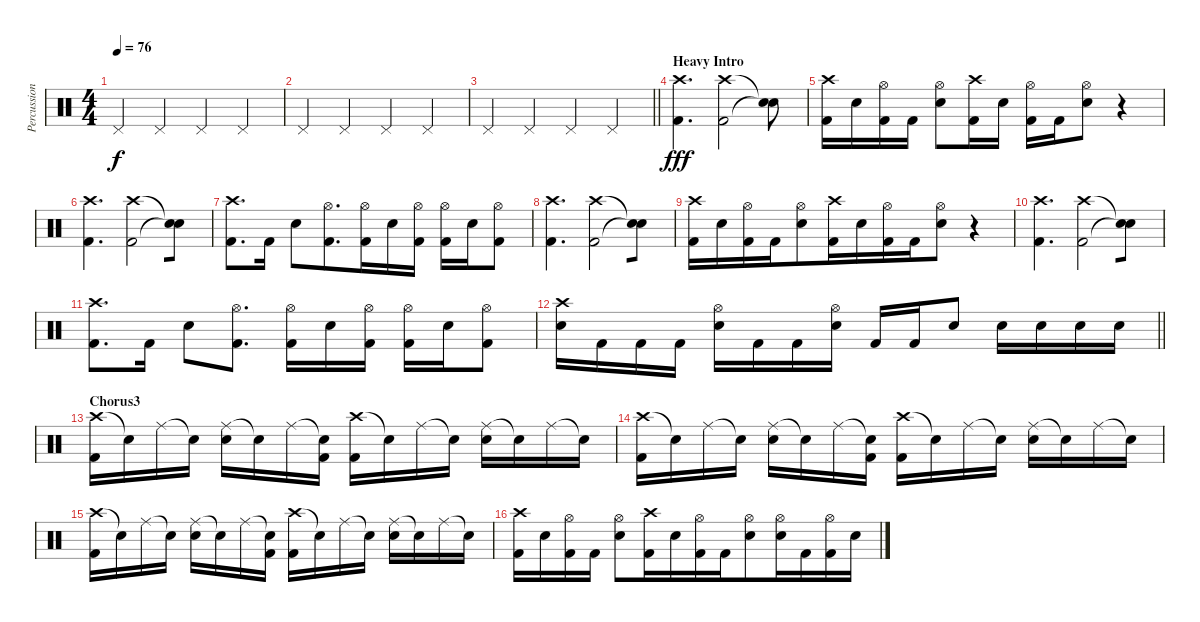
\track ("Percussion" "Percussion") {instrument percussion}
\staff {score}
\articulation defaults
\ts (4 4)
\tempo 76
\clef neutral
\ks c "Pedal Hi-Hat (hit)".4{dy f} "Pedal Hi-Hat (hit)".4 "Pedal Hi-Hat (hit)".4 "Pedal Hi-Hat (hit)".4
|
"Pedal Hi-Hat (hit)".4{beam merge} "Pedal Hi-Hat (hit)".4{beam merge} "Pedal Hi-Hat (hit)".4 "Pedal Hi-Hat (hit)".4 |
\barLineRight lightlight "Pedal Hi-Hat (hit)".4 "Pedal Hi-Hat (hit)".4 "Pedal Hi-Hat (hit)".4 "Pedal Hi-Hat (hit)".4
|
\section ("" "Heavy Intro")
("Crash high (hit)" "Kick (hit) 2").4{d dy fff} ("Crash high (hit)" "Kick (hit) 2").2 ("Snare (hit)"{t} "Snare (hit)"{t}).8 |
("Crash high (hit)" "Kick (hit) 2").16 "Snare (hit) 2".16 ("Hi-Hat (open)" "Kick (hit) 2").16 "Kick (hit) 2".16 ("Hi-Hat (open)" "Snare (hit) 2").8 ("Crash high (hit)" "Kick (hit) 2").16 "Snare (hit) 2".16 ("Hi-Hat (open)" "Kick (hit) 2").16 "Kick (hit) 2".16 ("Hi-Hat (open)" "Snare (hit) 2").8 r.4 |
("Crash high (hit)" "Kick (hit) 2").4{d beam merge} ("Crash high (hit)" "Kick (hit) 2").2{beam merge} ("Snare (hit)"{t} "Snare (hit)"{t}).8 |
("Crash high (hit)" "Kick (hit) 2").8{d beam merge} "Kick (hit) 2".16 "Snare (hit) 2".8{beam merge} ("Hi-Hat (open)" "Kick (hit) 2").8{d beam merge} ("Hi-Hat (open)" "Kick (hit) 2").16{beam merge} "Snare (hit) 2".16{beam merge} ("Hi-Hat (open)" "Kick (hit) 2").16 ("Hi-Hat (open)" "Kick (hit) 2").16 "Snare (hit) 2".16{beam merge} ("Hi-Hat (open)" "Kick (hit) 2").8 |
("Crash high (hit)" "Kick (hit) 2").4{d} ("Crash high (hit)" "Kick (hit) 2").2{beam merge} ("Snare (hit)"{t} "Snare (hit)"{t}).8 |
("Crash high (hit)" "Kick (hit) 2").16{beam merge} "Snare (hit) 2".16{beam merge} ("Hi-Hat (open)" "Kick (hit) 2").16{beam merge} "Kick (hit) 2".16{beam merge} ("Hi-Hat (open)" "Snare (hit) 2").8{beam merge} ("Crash high (hit)" "Kick (hit) 2").16{beam merge} "Snare (hit) 2".16{beam merge} ("Hi-Hat (open)" "Kick (hit) 2").16{beam merge} "Kick (hit) 2".16{beam merge} ("Hi-Hat (open)" "Snare (hit) 2").8{beam merge} r.4 |
("Crash high (hit)" "Kick (hit) 2").4{d} ("Crash high (hit)" "Kick (hit) 2").2{beam merge} ("Snare (hit)"{t} "Snare (hit)"{t}).8 |
("Crash high (hit)" "Kick (hit) 2").8{d} "Kick (hit) 2".16 "Snare (hit) 2".8{beam merge} ("Hi-Hat (open)" "Kick (hit) 2").8{d} ("Hi-Hat (open)" "Kick (hit) 2").16 "Snare (hit) 2".16 ("Hi-Hat (open)" "Kick (hit) 2").16 ("Hi-Hat (open)" "Kick (hit) 2").16 "Snare (hit) 2".16 ("Hi-Hat (open)" "Kick (hit) 2").8 |
\barLineRight lightlight
("Crash high (hit)" "Snare (hit) 2").16 "Kick (hit) 2".16{beam merge} "Kick (hit) 2".16 "Kick (hit) 2".16 ("Hi-Hat (open)" "Snare (hit) 2").16 "Kick (hit) 2".16 "Kick (hit) 2".16 ("Hi-Hat (open)" "Snare (hit) 2").16 "Kick (hit) 2".16 "Kick (hit) 2".16 "Snare (hit) 2".8 "Snare (hit) 2".16 "Snare (hit) 2".16 "Snare (hit) 2".16 "Snare (hit) 2".16 |
\section ("" "Chorus3")
("Crash high (hit)" "Kick (hit) 2").16 "Snare (hit)"{t}.16 "Ride (middle)".16{beam merge} "Snare (hit)"{t}.16 ("Ride (middle)" "Snare (hit) 2").16{beam merge} "Snare (hit)"{t}.16 "Ride (middle)".16 ("Snare (hit)"{t} "Kick (hit) 2").16 ("Crash high (hit)" "Kick (hit) 2").16 "Snare (hit)"{t}.16 "Ride (middle)".16 "Snare (hit)"{t}.16 ("Ride (middle)" "Snare (hit) 2").16 "Snare (hit)"{t}.16 "Ride (middle)".16 "Snare (hit)"{t}.16 |
("Crash high (hit)" "Kick (hit) 2").16 "Snare (hit)"{t}.16 "Ride (middle)".16 "Snare (hit)"{t}.16 ("Ride (middle)" "Snare (hit) 2").16 "Snare (hit)"{t}.16 "Ride (middle)".16 ("Snare (hit)"{t} "Kick (hit) 2").16 ("Crash high (hit)" "Kick (hit) 2").16 "Snare (hit)"{t}.16 "Ride (middle)".16 "Snare (hit)"{t}.16 ("Ride (middle)" "Snare (hit) 2").16 "Snare (hit)"{t}.16 "Ride (middle)".16 "Snare (hit)"{t}.16 |
("Crash high (hit)" "Kick (hit) 2").16 "Snare (hit)"{t}.16 "Ride (middle)".16 "Snare (hit)"{t}.16 ("Ride (middle)" "Snare (hit) 2").16 "Snare (hit)"{t}.16 "Ride (middle)".16 ("Snare (hit)"{t} "Kick (hit) 2").16 ("Crash high (hit)" "Kick (hit) 2").16 "Snare (hit)"{t}.16 "Ride (middle)".16 "Snare (hit)"{t}.16 ("Ride (middle)" "Snare (hit) 2").16 "Snare (hit)"{t}.16 "Ride (middle)".16 "Snare (hit)"{t}.16 |
("Crash high (hit)" "Kick (hit) 2").16 "Snare (hit) 2".16{beam merge} ("Hi-Hat (open)" "Kick (hit) 2").16{beam merge} "Kick (hit) 2".16 ("Hi-Hat (open)" "Snare (hit) 2").8{beam merge} ("Crash high (hit)" "Kick (hit) 2").16{beam merge} "Snare (hit) 2".16{beam merge} ("Hi-Hat (open)" "Kick (hit) 2").16{beam merge} "Kick (hit) 2".16 ("Hi-Hat (open)" "Snare (hit) 2").8{beam merge} ("Hi-Hat (open)" "Snare (hit) 2").16{beam merge} "Kick (hit) 2".16{beam merge} ("Hi-Hat (open)" "Kick (hit) 2").16{beam merge} "Snare (hit) 2".16
